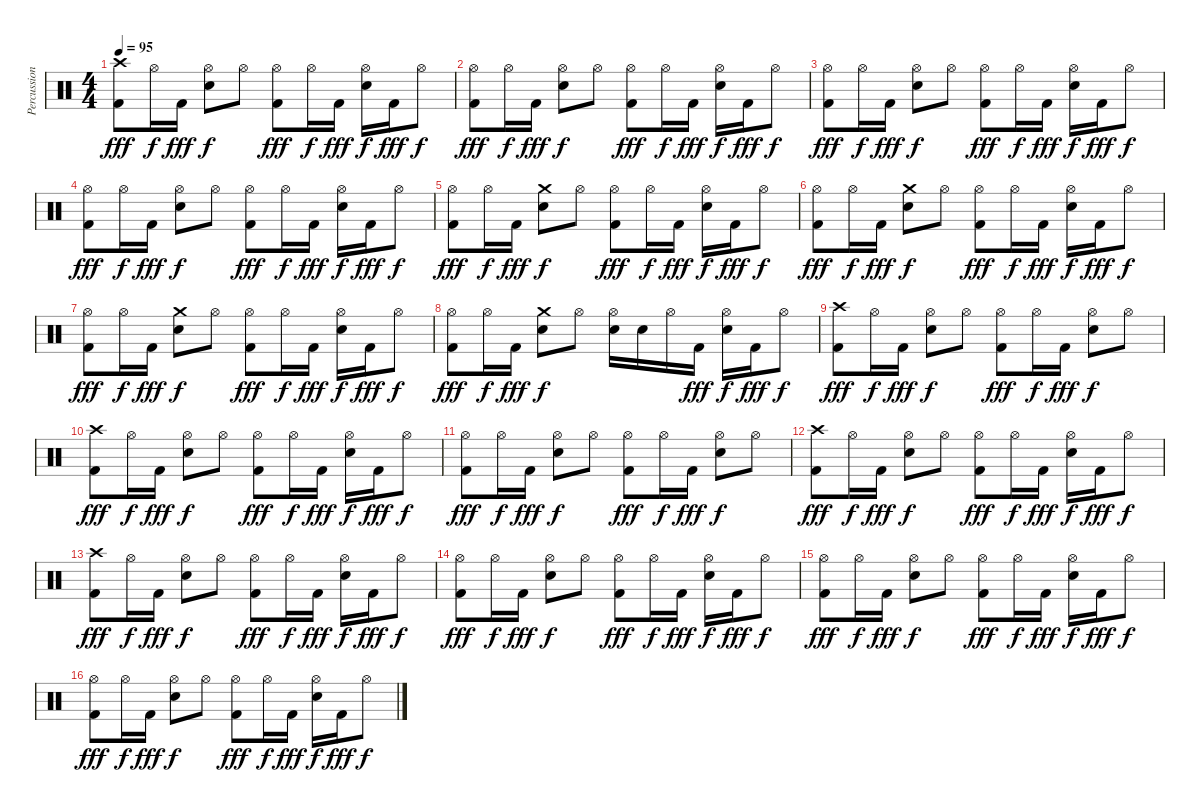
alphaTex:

\track ("Percussions" "Percussion") {instrument percussion}
\staff {score}
\articulation defaults
\ts (4 4)
\tempo 95
\clef neutral
\ks c
("Crash high (hit)" "Kick (hit) 2").8{dy fff} "Hi-Hat (open)".16{dy f} "Kick (hit) 2".16{dy fff} ("Hi-Hat (open)" "Snare (hit) 2").8{dy f} "Hi-Hat (open)".8 ("Hi-Hat (open)" "Kick (hit) 2").8{dy fff} "Hi-Hat (open)".16{dy f} "Kick (hit) 2".16{dy fff} ("Hi-Hat (open)" "Snare (hit) 2").16{dy f} "Kick (hit) 2".16{dy fff} "Hi-Hat (open)".8{dy f} |
("Hi-Hat (open)" "Kick (hit) 2").8{dy fff} "Hi-Hat (open)".16{dy f} "Kick (hit) 2".16{dy fff} ("Hi-Hat (open)" "Snare (hit) 2").8{dy f} "Hi-Hat (open)".8 ("Hi-Hat (open)" "Kick (hit) 2").8{dy fff} "Hi-Hat (open)".16{dy f} "Kick (hit) 2".16{dy fff} ("Hi-Hat (open)" "Snare (hit) 2").16{dy f} "Kick (hit) 2".16{dy fff} "Hi-Hat (open)".8{dy f} |
("Hi-Hat (open)" "Kick (hit) 2").8{dy fff} "Hi-Hat (open)".16{dy f} "Kick (hit) 2".16{dy fff} ("Hi-Hat (open)" "Snare (hit) 2").8{dy f} "Hi-Hat (open)".8 ("Hi-Hat (open)" "Kick (hit) 2").8{dy fff} "Hi-Hat (open)".16{dy f} "Kick (hit) 2".16{dy fff} ("Hi-Hat (open)" "Snare (hit) 2").16{dy f} "Kick (hit) 2".16{dy fff} "Hi-Hat (open)".8{dy f} |
("Hi-Hat (open)" "Kick (hit) 2").8{dy fff} "Hi-Hat (open)".16{dy f} "Kick (hit) 2".16{dy fff} ("Hi-Hat (open)" "Snare (hit) 2").8{dy f} "Hi-Hat (open)".8 ("Hi-Hat (open)" "Kick (hit) 2").8{dy fff} "Hi-Hat (open)".16{dy f} "Kick (hit) 2".16{dy fff} ("Hi-Hat (open)" "Snare (hit) 2").16{dy f} "Kick (hit) 2".16{dy fff} "Hi-Hat (open)".8{dy f} |
("Hi-Hat (open)" "Kick (hit) 2").8{dy fff} "Hi-Hat (open)".16{dy f} "Kick (hit) 2".16{dy fff} ("Crash medium (hit)" "Snare (hit) 2").8{dy f} "Hi-Hat (open)".8 ("Hi-Hat (open)" "Kick (hit) 2").8{dy fff} "Hi-Hat (open)".16{dy f} "Kick (hit) 2".16{dy fff} ("Hi-Hat (open)" "Snare (hit) 2").16{dy f} "Kick (hit) 2".16{dy fff} "Hi-Hat (open)".8{dy f} |
("Hi-Hat (open)" "Kick (hit) 2").8{dy fff} "Hi-Hat (open)".16{dy f} "Kick (hit) 2".16{dy fff} ("Crash medium (hit)" "Snare (hit) 2").8{dy f} "Hi-Hat (open)".8 ("Hi-Hat (open)" "Kick (hit) 2").8{dy fff} "Hi-Hat (open)".16{dy f} "Kick (hit) 2".16{dy fff} ("Hi-Hat (open)" "Snare (hit) 2").16{dy f} "Kick (hit) 2".16{dy fff} "Hi-Hat (open)".8{dy f} |
("Hi-Hat (open)" "Kick (hit) 2").8{dy fff} "Hi-Hat (open)".16{dy f} "Kick (hit) 2".16{dy fff} ("Crash medium (hit)" "Snare (hit) 2").8{dy f} "Hi-Hat (open)".8 ("Hi-Hat (open)" "Kick (hit) 2").8{dy fff} "Hi-Hat (open)".16{dy f} "Kick (hit) 2".16{dy fff} ("Hi-Hat (open)" "Snare (hit) 2").16{dy f} "Kick (hit) 2".16{dy fff} "Hi-Hat (open)".8{dy f} |
("Hi-Hat (open)" "Kick (hit) 2").8{dy fff} "Hi-Hat (open)".16{dy f} "Kick (hit) 2".16{dy fff} ("Crash medium (hit)" "Snare (hit) 2").8{dy f} "Hi-Hat (open)".8 ("Hi-Hat (open)" "Snare (hit) 2").16 "Snare (hit) 2".16 "Hi-Hat (open)".16 "Kick (hit) 2".16{dy fff} ("Hi-Hat (open)" "Snare (hit) 2").16{dy f} "Kick (hit) 2".16{dy fff} "Hi-Hat (open)".8{dy f} |
("Crash high (hit)" "Kick (hit) 2").8{dy fff} "Hi-Hat (open)".16{dy f} "Kick (hit) 2".16{dy fff} ("Hi-Hat (open)" "Snare (hit) 2").8{dy f} "Hi-Hat (open)".8 ("Hi-Hat (open)" "Kick (hit) 2").8{dy fff} "Hi-Hat (open)".16{dy f} "Kick (hit) 2".16{dy fff} ("Hi-Hat (open)" "Snare (hit) 2").8{dy f} "Hi-Hat (open)".8 |
("Crash high (hit)" "Kick (hit) 2").8{dy fff} "Hi-Hat (open)".16{dy f} "Kick (hit) 2".16{dy fff} ("Hi-Hat (open)" "Snare (hit) 2").8{dy f} "Hi-Hat (open)".8 ("Hi-Hat (open)" "Kick (hit) 2").8{dy fff} "Hi-Hat (open)".16{dy f} "Kick (hit) 2".16{dy fff} ("Hi-Hat (open)" "Snare (hit) 2").16{dy f} "Kick (hit) 2".16{dy fff} "Hi-Hat (open)".8{dy f} |
("Hi-Hat (open)" "Kick (hit) 2").8{dy fff} "Hi-Hat (open)".16{dy f} "Kick (hit) 2".16{dy fff} ("Hi-Hat (open)" "Snare (hit) 2").8{dy f} "Hi-Hat (open)".8 ("Hi-Hat (open)" "Kick (hit) 2").8{dy fff} "Hi-Hat (open)".16{dy f} "Kick (hit) 2".16{dy fff} ("Hi-Hat (open)" "Snare (hit) 2").8{dy f} "Hi-Hat (open)".8 |
("Crash high (hit)" "Kick (hit) 2").8{dy fff} "Hi-Hat (open)".16{dy f} "Kick (hit) 2".16{dy fff} ("Hi-Hat (open)" "Snare (hit) 2").8{dy f} "Hi-Hat (open)".8 ("Hi-Hat (open)" "Kick (hit) 2").8{dy fff} "Hi-Hat (open)".16{dy f} "Kick (hit) 2".16{dy fff} ("Hi-Hat (open)" "Snare (hit) 2").16{dy f} "Kick (hit) 2".16{dy fff} "Hi-Hat (open)".8{dy f} |
("Crash high (hit)" "Kick (hit) 2").8{dy fff} "Hi-Hat (open)".16{dy f} "Kick (hit) 2".16{dy fff} ("Hi-Hat (open)" "Snare (hit) 2").8{dy f} "Hi-Hat (open)".8 ("Hi-Hat (open)" "Kick (hit) 2").8{dy fff} "Hi-Hat (open)".16{dy f} "Kick (hit) 2".16{dy fff} ("Hi-Hat (open)" "Snare (hit) 2").16{dy f} "Kick (hit) 2".16{dy fff} "Hi-Hat (open)".8{dy f} |
("Hi-Hat (open)" "Kick (hit) 2").8{dy fff} "Hi-Hat (open)".16{dy f} "Kick (hit) 2".16{dy fff} ("Hi-Hat (open)" "Snare (hit) 2").8{dy f} "Hi-Hat (open)".8 ("Hi-Hat (open)" "Kick (hit) 2").8{dy fff} "Hi-Hat (open)".16{dy f} "Kick (hit) 2".16{dy fff} ("Hi-Hat (open)" "Snare (hit) 2").16{dy f} "Kick (hit) 2".16{dy fff} "Hi-Hat (open)".8{dy f} |
("Hi-Hat (open)" "Kick (hit) 2").8{dy fff} "Hi-Hat (open)".16{dy f} "Kick (hit) 2".16{dy fff} ("Hi-Hat (open)" "Snare (hit) 2").8{dy f} "Hi-Hat (open)".8 ("Hi-Hat (open)" "Kick (hit) 2").8{dy fff} "Hi-Hat (open)".16{dy f} "Kick (hit) 2".16{dy fff} ("Hi-Hat (open)" "Snare (hit) 2").16{dy f} "Kick (hit) 2".16{dy fff} "Hi-Hat (open)".8{dy f} |
("Hi-Hat (open)" "Kick (hit) 2").8{dy fff} "Hi-Hat (open)".16{dy f} "Kick (hit) 2".16{dy fff} ("Hi-Hat (open)" "Snare (hit) 2").8{dy f} "Hi-Hat (open)".8 ("Hi-Hat (open)" "Kick (hit) 2").8{dy fff} "Hi-Hat (open)".16{dy f} "Kick (hit) 2".16{dy fff} ("Hi-Hat (open)" "Snare (hit) 2").16{dy f} "Kick (hit) 2".16{dy fff} "Hi-Hat (open)".8{dy f}
